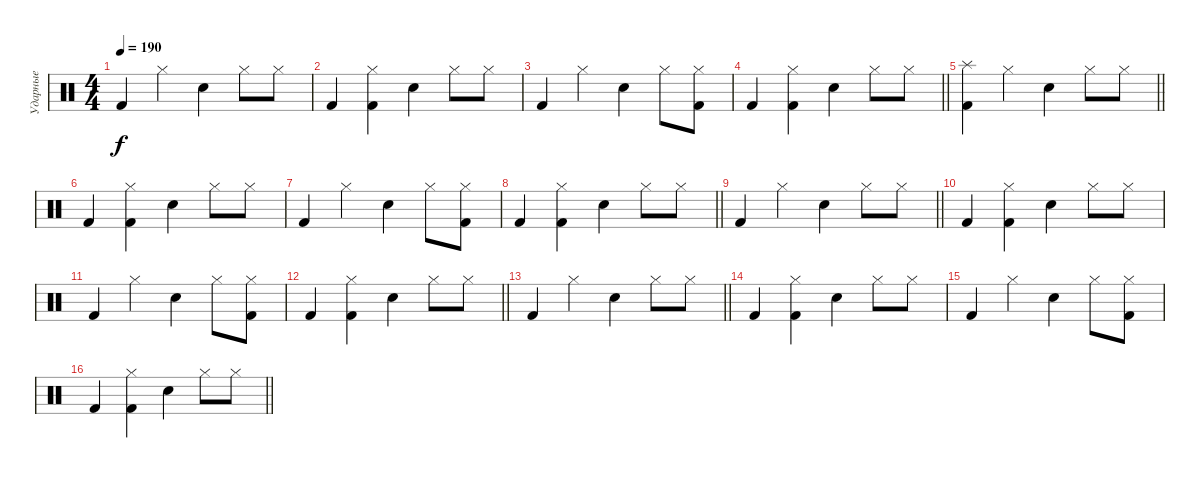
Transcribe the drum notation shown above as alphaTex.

\track ("Ударные" "Ударные") {instrument percussion}
\staff {score}
\articulation defaults
\ts (4 4)
\tempo 190
\clef neutral
\ks c "Kick (hit) 2".4{dy f} "Hi-Hat (closed)".4 "Electric Snare (hit)".4 "Hi-Hat (closed)".8 "Hi-Hat (closed)".8
|
"Kick (hit) 2".4 ("Kick (hit) 2" "Hi-Hat (closed)").4 "Electric Snare (hit)".4 "Hi-Hat (closed)".8 "Hi-Hat (closed)".8 |
"Kick (hit) 2".4 "Hi-Hat (closed)".4 "Electric Snare (hit)".4 "Hi-Hat (closed)".8 ("Kick (hit) 2" "Hi-Hat (closed)").8 |
\barLineRight lightlight "Kick (hit) 2".4
("Kick (hit) 2" "Hi-Hat (closed)").4 "Electric Snare (hit)".4 "Hi-Hat (closed)".8 "Hi-Hat (closed)".8 |
\section ("" "")
\barLineRight lightlight
("Splash (hit)" "Kick (hit) 2").4 "Hi-Hat (closed)".4 "Electric Snare (hit)".4 "Hi-Hat (closed)".8 "Hi-Hat (closed)".8 |
"Kick (hit) 2".4 ("Kick (hit) 2" "Hi-Hat (closed)").4 "Electric Snare (hit)".4 "Hi-Hat (closed)".8 "Hi-Hat (closed)".8 |
"Kick (hit) 2".4 "Hi-Hat (closed)".4 "Electric Snare (hit)".4 "Hi-Hat (closed)".8 ("Kick (hit) 2" "Hi-Hat (closed)").8 |
\barLineRight lightlight "Kick (hit) 2".4
("Kick (hit) 2" "Hi-Hat (closed)").4 "Electric Snare (hit)".4 "Hi-Hat (closed)".8 "Hi-Hat (closed)".8 |
\barLineRight lightlight "Kick (hit) 2".4 "Hi-Hat (closed)".4 "Electric Snare (hit)".4 "Hi-Hat (closed)".8 "Hi-Hat (closed)".8
|
"Kick (hit) 2".4 ("Kick (hit) 2" "Hi-Hat (closed)").4 "Electric Snare (hit)".4 "Hi-Hat (closed)".8 "Hi-Hat (closed)".8 |
"Kick (hit) 2".4 "Hi-Hat (closed)".4 "Electric Snare (hit)".4 "Hi-Hat (closed)".8 ("Kick (hit) 2" "Hi-Hat (closed)").8 |
\barLineRight lightlight "Kick (hit) 2".4
("Kick (hit) 2" "Hi-Hat (closed)").4 "Electric Snare (hit)".4 "Hi-Hat (closed)".8 "Hi-Hat (closed)".8 |
\barLineRight lightlight "Kick (hit) 2".4 "Hi-Hat (closed)".4 "Electric Snare (hit)".4 "Hi-Hat (closed)".8 "Hi-Hat (closed)".8
|
"Kick (hit) 2".4 ("Kick (hit) 2" "Hi-Hat (closed)").4 "Electric Snare (hit)".4 "Hi-Hat (closed)".8 "Hi-Hat (closed)".8 |
"Kick (hit) 2".4 "Hi-Hat (closed)".4 "Electric Snare (hit)".4 "Hi-Hat (closed)".8 ("Kick (hit) 2" "Hi-Hat (closed)").8 |
\barLineRight lightlight "Kick (hit) 2".4
("Kick (hit) 2" "Hi-Hat (closed)").4 "Electric Snare (hit)".4 "Hi-Hat (closed)".8 "Hi-Hat (closed)".8
